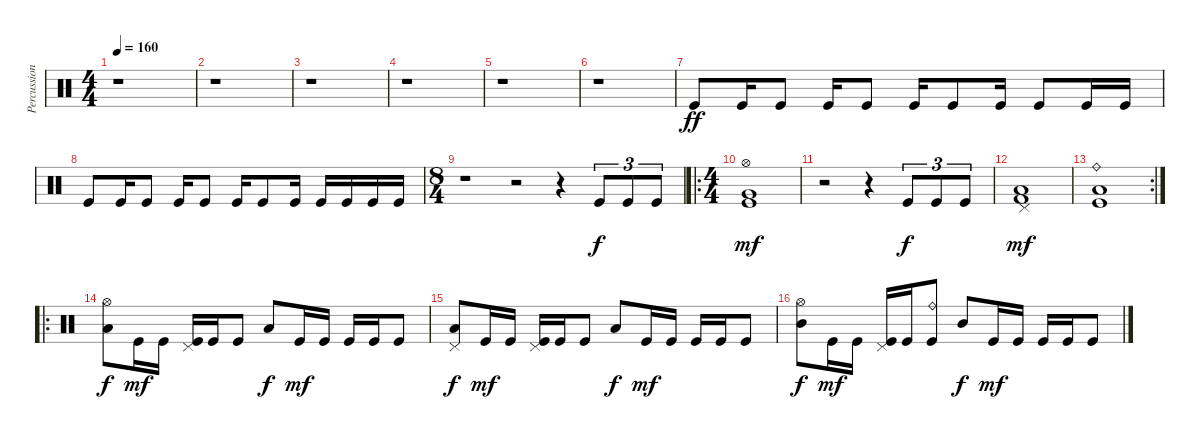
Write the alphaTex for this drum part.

\track ("Percussion" "Percussion") {instrument percussion}
\staff {score}
\articulation defaults
\ts (4 4)
\tempo 160
\clef neutral
\ks c
r.1{dy ff} |
r.1 |
r.1 |
r.1 |
r.1 |
r.1 |
"Kick (hit)".8 "Kick (hit)".16 "Kick (hit)".8 "Kick (hit)".16 "Kick (hit)".8 "Kick (hit)".16 "Kick (hit)".8 "Kick (hit)".16 "Kick (hit)".8 "Kick (hit)".16 "Kick (hit)".16 |
"Kick (hit)".8 "Kick (hit)".16 "Kick (hit)".8 "Kick (hit)".16 "Kick (hit)".8 "Kick (hit)".16 "Kick (hit)".8 "Kick (hit)".16 "Kick (hit)".16 "Kick (hit)".16 "Kick (hit)".16 "Kick (hit)".16 |
\ts (8 4)
r.1 r.2 r.4 "Kick (hit)".8{tu (3 2) dy f} "Kick (hit)".8{tu (3 2)} "Kick (hit)".8{tu (3 2)} |
\ro
\ts (4 4)
("Very Low Tom (hit)" "Kick (hit)" "Hi-Hat (open)").1{dy mf} |
r.2 r.4 "Kick (hit)".8{tu (3 2) dy f} "Kick (hit)".8{tu (3 2)} "Kick (hit)".8{tu (3 2)} |
("Low Tom (hit)" "Kick (hit) 2" "Pedal Hi-Hat (hit)").1{dy mf} |
\rc 2
("Low Floor Tom (hit)" "Kick (hit)" "Ride (bell)").1 |
\ro
("Low Tom (hit)" "Hi-Hat (open)").8{dy f} "Kick (hit)".16{dy mf} "Kick (hit)".16 ("Kick (hit)" "Pedal Hi-Hat (hit)").16 "Kick (hit)".16 "Kick (hit)".8 "Low Tom (hit)".8{dy f} "Kick (hit)".16{dy mf} "Kick (hit)".16 "Kick (hit)".16 "Kick (hit)".16 "Kick (hit)".8 |
("Low Tom (hit)" "Pedal Hi-Hat (hit)").8{dy f} "Kick (hit)".16{dy mf} "Kick (hit)".16 ("Kick (hit)" "Pedal Hi-Hat (hit)").16 "Kick (hit)".16 "Kick (hit)".8 "Low Tom (hit)".8{dy f} "Kick (hit)".16{dy mf} "Kick (hit)".16 "Kick (hit)".16 "Kick (hit)".16 "Kick (hit)".8 |
("Mid Tom (hit)" "Hi-Hat (open)").8{dy f} "Kick (hit)".16{dy mf} "Kick (hit)".16 ("Kick (hit)" "Pedal Hi-Hat (hit)").16 "Kick (hit)".16 ("Kick (hit)" "Ride (bell)").8 "Mid Tom (hit)".8{dy f} "Kick (hit)".16{dy mf} "Kick (hit)".16 "Kick (hit)".16 "Kick (hit)".16 "Kick (hit)".8
